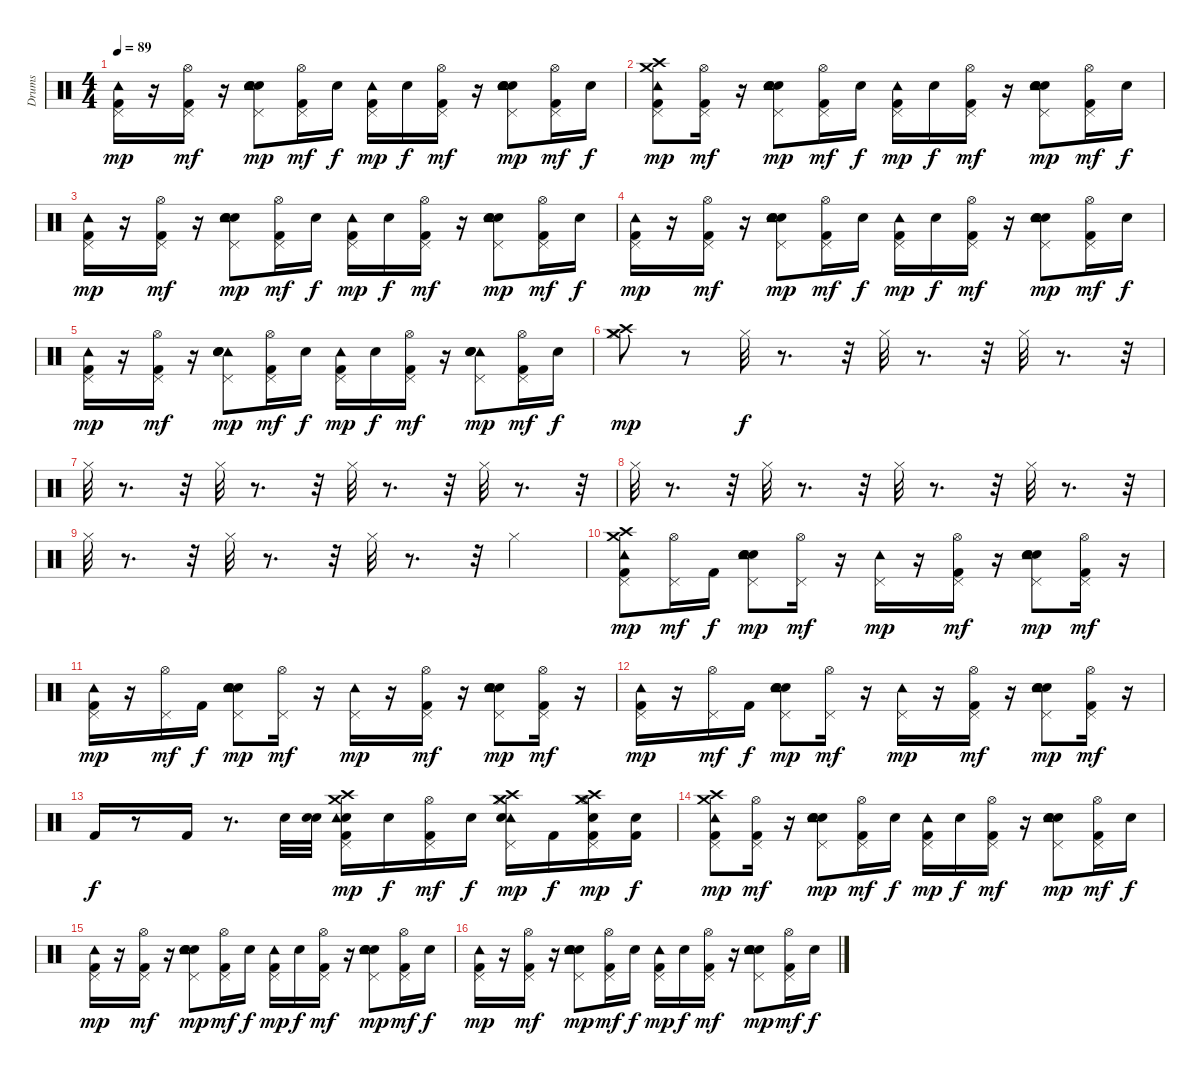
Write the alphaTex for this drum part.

\track ("Drums" "Drums") {instrument percussion}
\staff {score}
\articulation defaults
\ts (4 4)
\tempo 89
\clef neutral
\ks c
("Kick (hit) 2" "Tambourine (hit)" "Pedal Hi-Hat (hit)").16{dy mp} r.16 ("Kick (hit) 2" "Hi-Hat (open)" "Pedal Hi-Hat (hit)").16{dy mf} r.16 ("Electric Snare (hit)" "Hand Clap (hit)" "Snare (hit) 2" "Tambourine (hit)" "Pedal Hi-Hat (hit)").8{dy mp} ("Kick (hit) 2" "Hi-Hat (open)" "Pedal Hi-Hat (hit)").16{dy mf} "Snare (hit) 2".16{dy f} ("Kick (hit) 2" "Tambourine (hit)" "Pedal Hi-Hat (hit)").16{dy mp} "Snare (hit) 2".16{dy f} ("Kick (hit) 2" "Hi-Hat (open)" "Pedal Hi-Hat (hit)").16{dy mf} r.16 ("Electric Snare (hit)" "Hand Clap (hit)" "Snare (hit) 2" "Tambourine (hit)" "Pedal Hi-Hat (hit)").8{dy mp} ("Kick (hit) 2" "Hi-Hat (open)" "Pedal Hi-Hat (hit)").16{dy mf} "Snare (hit) 2".16{dy f} |
("Kick (hit) 2" "Tambourine (hit)" "Crash high (hit)" "Crash medium (hit)" "Pedal Hi-Hat (hit)").8{dy mp} ("Kick (hit) 2" "Hi-Hat (open)" "Pedal Hi-Hat (hit)").16{dy mf} r.16 ("Electric Snare (hit)" "Snare (hit) 2" "Hand Clap (hit)" "Tambourine (hit)" "Pedal Hi-Hat (hit)").8{dy mp} ("Kick (hit) 2" "Hi-Hat (open)" "Pedal Hi-Hat (hit)").16{dy mf} "Snare (hit) 2".16{dy f} ("Kick (hit) 2" "Tambourine (hit)" "Pedal Hi-Hat (hit)").16{dy mp} "Snare (hit) 2".16{dy f} ("Kick (hit) 2" "Hi-Hat (open)" "Pedal Hi-Hat (hit)").16{dy mf} r.16 ("Electric Snare (hit)" "Snare (hit) 2" "Hand Clap (hit)" "Tambourine (hit)" "Pedal Hi-Hat (hit)").8{dy mp} ("Kick (hit) 2" "Hi-Hat (open)" "Pedal Hi-Hat (hit)").16{dy mf} "Snare (hit) 2".16{dy f} |
("Kick (hit) 2" "Tambourine (hit)" "Pedal Hi-Hat (hit)").16{dy mp} r.16 ("Kick (hit) 2" "Hi-Hat (open)" "Pedal Hi-Hat (hit)").16{dy mf} r.16 ("Electric Snare (hit)" "Hand Clap (hit)" "Snare (hit) 2" "Tambourine (hit)" "Pedal Hi-Hat (hit)").8{dy mp} ("Kick (hit) 2" "Hi-Hat (open)" "Pedal Hi-Hat (hit)").16{dy mf} "Snare (hit) 2".16{dy f} ("Kick (hit) 2" "Tambourine (hit)" "Pedal Hi-Hat (hit)").16{dy mp} "Snare (hit) 2".16{dy f} ("Kick (hit) 2" "Hi-Hat (open)" "Pedal Hi-Hat (hit)").16{dy mf} r.16 ("Electric Snare (hit)" "Hand Clap (hit)" "Snare (hit) 2" "Tambourine (hit)" "Pedal Hi-Hat (hit)").8{dy mp} ("Kick (hit) 2" "Hi-Hat (open)" "Pedal Hi-Hat (hit)").16{dy mf} "Snare (hit) 2".16{dy f} |
("Kick (hit) 2" "Tambourine (hit)" "Pedal Hi-Hat (hit)").16{dy mp} r.16 ("Kick (hit) 2" "Hi-Hat (open)" "Pedal Hi-Hat (hit)").16{dy mf} r.16 ("Electric Snare (hit)" "Hand Clap (hit)" "Snare (hit) 2" "Tambourine (hit)" "Pedal Hi-Hat (hit)").8{dy mp} ("Kick (hit) 2" "Hi-Hat (open)" "Pedal Hi-Hat (hit)").16{dy mf} "Snare (hit) 2".16{dy f} ("Kick (hit) 2" "Tambourine (hit)" "Pedal Hi-Hat (hit)").16{dy mp} "Snare (hit) 2".16{dy f} ("Kick (hit) 2" "Hi-Hat (open)" "Pedal Hi-Hat (hit)").16{dy mf} r.16 ("Electric Snare (hit)" "Hand Clap (hit)" "Snare (hit) 2" "Tambourine (hit)" "Pedal Hi-Hat (hit)").8{dy mp} ("Kick (hit) 2" "Hi-Hat (open)" "Pedal Hi-Hat (hit)").16{dy mf} "Snare (hit) 2".16{dy f} |
("Tambourine (hit)" "Pedal Hi-Hat (hit)" "Kick (hit) 2").16{dy mp} r.16 ("Hi-Hat (open)" "Pedal Hi-Hat (hit)" "Kick (hit) 2").16{dy mf} r.16 ("Tambourine (hit)" "Pedal Hi-Hat (hit)" "Electric Snare (hit)" "Hand Clap (hit)" "Snare (hit) 2").8{dy mp} ("Hi-Hat (open)" "Pedal Hi-Hat (hit)" "Kick (hit) 2").16{dy mf} "Snare (hit) 2".16{dy f} ("Tambourine (hit)" "Pedal Hi-Hat (hit)" "Kick (hit) 2").16{dy mp} "Snare (hit) 2".16{dy f} ("Hi-Hat (open)" "Pedal Hi-Hat (hit)" "Kick (hit) 2").16{dy mf} r.16 ("Tambourine (hit)" "Pedal Hi-Hat (hit)" "Electric Snare (hit)" "Hand Clap (hit)" "Snare (hit) 2").8{dy mp} ("Hi-Hat (open)" "Pedal Hi-Hat (hit)" "Kick (hit) 2").16{dy mf} "Snare (hit) 2".16{dy f} |
("Crash high (hit)" "Crash medium (hit)" "Hi-Hat (closed)").8{dy mp} r.8 "Hi-Hat (closed)".32{dy f} r.8{d} r.32 "Hi-Hat (closed)".32 r.8{d} r.32 "Hi-Hat (closed)".32 r.8{d} r.32 |
"Hi-Hat (closed)".32 r.8{d} r.32 "Hi-Hat (closed)".32 r.8{d} r.32 "Hi-Hat (closed)".32 r.8{d} r.32 "Hi-Hat (closed)".32 r.8{d} r.32 |
"Hi-Hat (closed)".32 r.8{d} r.32 "Hi-Hat (closed)".32 r.8{d} r.32 "Hi-Hat (closed)".32 r.8{d} r.32 "Hi-Hat (closed)".32 r.8{d} r.32 |
"Hi-Hat (closed)".32 r.8{d} r.32 "Hi-Hat (closed)".32 r.8{d} r.32 "Hi-Hat (closed)".32 r.8{d} r.32 "Hi-Hat (closed)".4 |
("Kick (hit) 2" "Tambourine (hit)" "Crash high (hit)" "Crash medium (hit)" "Pedal Hi-Hat (hit)").8{dy mp} ("Hi-Hat (open)" "Pedal Hi-Hat (hit)").16{dy mf} "Kick (hit) 2".16{dy f} ("Hand Clap (hit)" "Electric Snare (hit)" "Snare (hit) 2" "Tambourine (hit)" "Pedal Hi-Hat (hit)").8{dy mp} ("Hi-Hat (open)" "Pedal Hi-Hat (hit)").16{dy mf} r.16 ("Tambourine (hit)" "Pedal Hi-Hat (hit)").16{dy mp} r.16 ("Hi-Hat (open)" "Kick (hit) 2" "Pedal Hi-Hat (hit)").16{dy mf} r.16 ("Hand Clap (hit)" "Electric Snare (hit)" "Snare (hit) 2" "Tambourine (hit)" "Pedal Hi-Hat (hit)").8{dy mp} ("Hi-Hat (open)" "Kick (hit) 2" "Pedal Hi-Hat (hit)").16{dy mf} r.16 |
("Kick (hit) 2" "Tambourine (hit)" "Pedal Hi-Hat (hit)").16{dy mp} r.16 ("Hi-Hat (open)" "Pedal Hi-Hat (hit)").16{dy mf} "Kick (hit) 2".16{dy f} ("Hand Clap (hit)" "Electric Snare (hit)" "Snare (hit) 2" "Tambourine (hit)" "Pedal Hi-Hat (hit)").8{dy mp} ("Hi-Hat (open)" "Pedal Hi-Hat (hit)").16{dy mf} r.16 ("Tambourine (hit)" "Pedal Hi-Hat (hit)").16{dy mp} r.16 ("Hi-Hat (open)" "Kick (hit) 2" "Pedal Hi-Hat (hit)").16{dy mf} r.16 ("Hand Clap (hit)" "Electric Snare (hit)" "Snare (hit) 2" "Tambourine (hit)" "Pedal Hi-Hat (hit)").8{dy mp} ("Hi-Hat (open)" "Kick (hit) 2" "Pedal Hi-Hat (hit)").16{dy mf} r.16 |
("Kick (hit) 2" "Tambourine (hit)" "Pedal Hi-Hat (hit)").16{dy mp} r.16 ("Hi-Hat (open)" "Pedal Hi-Hat (hit)").16{dy mf} "Kick (hit) 2".16{dy f} ("Hand Clap (hit)" "Electric Snare (hit)" "Snare (hit) 2" "Tambourine (hit)" "Pedal Hi-Hat (hit)").8{dy mp} ("Hi-Hat (open)" "Pedal Hi-Hat (hit)").16{dy mf} r.16 ("Tambourine (hit)" "Pedal Hi-Hat (hit)").16{dy mp} r.16 ("Hi-Hat (open)" "Kick (hit) 2" "Pedal Hi-Hat (hit)").16{dy mf} r.16 ("Hand Clap (hit)" "Electric Snare (hit)" "Snare (hit) 2" "Tambourine (hit)" "Pedal Hi-Hat (hit)").8{dy mp} ("Hi-Hat (open)" "Kick (hit) 2" "Pedal Hi-Hat (hit)").16{dy mf} r.16 |
"Kick (hit) 2".16{dy f} r.8 "Kick (hit) 2".16 r.8{d} "Electric Snare (hit)".32 ("Electric Snare (hit)" "Electric Snare (hit)").32 ("Kick (hit) 2" "Crash high (hit)" "Crash medium (hit)" "Electric Snare (hit)" "Tambourine (hit)" "Pedal Hi-Hat (hit)").16{dy mp} "Electric Snare (hit)".16{dy f} ("Kick (hit) 2" "Hi-Hat (open)" "Pedal Hi-Hat (hit)").16{dy mf} "Electric Snare (hit)".16{dy f} ("Crash high (hit)" "Crash medium (hit)" "Tambourine (hit)" "Pedal Hi-Hat (hit)" "Electric Snare (hit)" "Hi-Hat (closed)").16{dy mp} "Kick (hit) 2".16{dy f} ("Kick (hit) 2" "Hi-Hat (open)" "Pedal Hi-Hat (hit)" "Crash high (hit)" "Crash medium (hit)" "Electric Snare (hit)").16{dy mp} ("Kick (hit) 2" "Electric Snare (hit)").16{dy f} |
("Kick (hit) 2" "Tambourine (hit)" "Crash high (hit)" "Crash medium (hit)" "Pedal Hi-Hat (hit)").8{dy mp} ("Kick (hit) 2" "Hi-Hat (open)" "Pedal Hi-Hat (hit)").16{dy mf} r.16 ("Electric Snare (hit)" "Snare (hit) 2" "Hand Clap (hit)" "Tambourine (hit)" "Pedal Hi-Hat (hit)").8{dy mp} ("Kick (hit) 2" "Hi-Hat (open)" "Pedal Hi-Hat (hit)").16{dy mf} "Snare (hit) 2".16{dy f} ("Kick (hit) 2" "Tambourine (hit)" "Pedal Hi-Hat (hit)").16{dy mp} "Snare (hit) 2".16{dy f} ("Kick (hit) 2" "Hi-Hat (open)" "Pedal Hi-Hat (hit)").16{dy mf} r.16 ("Electric Snare (hit)" "Snare (hit) 2" "Hand Clap (hit)" "Tambourine (hit)" "Pedal Hi-Hat (hit)").8{dy mp} ("Kick (hit) 2" "Hi-Hat (open)" "Pedal Hi-Hat (hit)").16{dy mf} "Snare (hit) 2".16{dy f} |
("Kick (hit) 2" "Tambourine (hit)" "Pedal Hi-Hat (hit)").16{dy mp} r.16 ("Kick (hit) 2" "Hi-Hat (open)" "Pedal Hi-Hat (hit)").16{dy mf} r.16 ("Electric Snare (hit)" "Hand Clap (hit)" "Snare (hit) 2" "Tambourine (hit)" "Pedal Hi-Hat (hit)").8{dy mp} ("Kick (hit) 2" "Hi-Hat (open)" "Pedal Hi-Hat (hit)").16{dy mf} "Snare (hit) 2".16{dy f} ("Kick (hit) 2" "Tambourine (hit)" "Pedal Hi-Hat (hit)").16{dy mp} "Snare (hit) 2".16{dy f} ("Kick (hit) 2" "Hi-Hat (open)" "Pedal Hi-Hat (hit)").16{dy mf} r.16 ("Electric Snare (hit)" "Hand Clap (hit)" "Snare (hit) 2" "Tambourine (hit)" "Pedal Hi-Hat (hit)").8{dy mp} ("Kick (hit) 2" "Hi-Hat (open)" "Pedal Hi-Hat (hit)").16{dy mf} "Snare (hit) 2".16{dy f} |
("Kick (hit) 2" "Tambourine (hit)" "Pedal Hi-Hat (hit)").16{dy mp} r.16 ("Kick (hit) 2" "Hi-Hat (open)" "Pedal Hi-Hat (hit)").16{dy mf} r.16 ("Electric Snare (hit)" "Hand Clap (hit)" "Snare (hit) 2" "Tambourine (hit)" "Pedal Hi-Hat (hit)").8{dy mp} ("Kick (hit) 2" "Hi-Hat (open)" "Pedal Hi-Hat (hit)").16{dy mf} "Snare (hit) 2".16{dy f} ("Kick (hit) 2" "Tambourine (hit)" "Pedal Hi-Hat (hit)").16{dy mp} "Snare (hit) 2".16{dy f} ("Kick (hit) 2" "Hi-Hat (open)" "Pedal Hi-Hat (hit)").16{dy mf} r.16 ("Electric Snare (hit)" "Hand Clap (hit)" "Snare (hit) 2" "Tambourine (hit)" "Pedal Hi-Hat (hit)").8{dy mp} ("Kick (hit) 2" "Hi-Hat (open)" "Pedal Hi-Hat (hit)").16{dy mf} "Snare (hit) 2".16{dy f}
